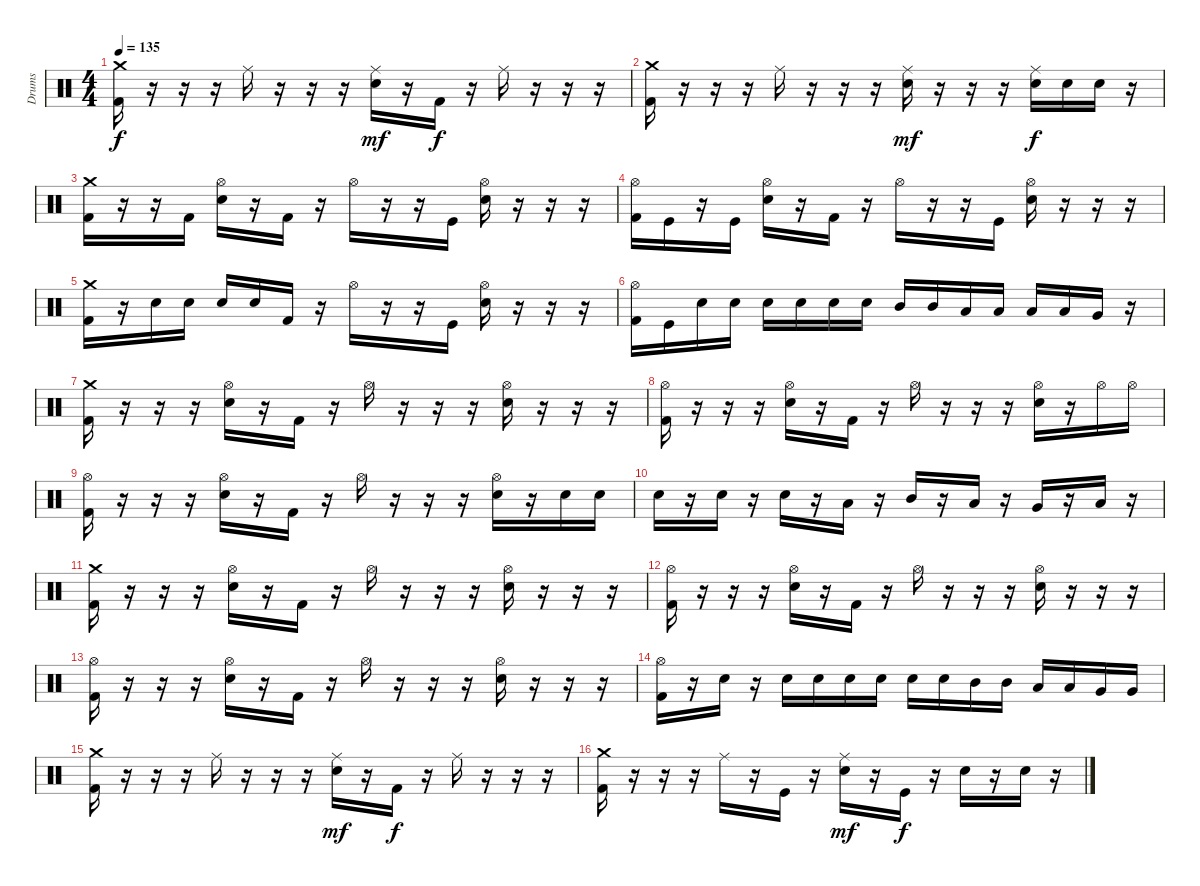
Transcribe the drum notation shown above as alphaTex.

\track ("Drums" "Drums") {instrument percussion}
\staff {score}
\articulation defaults
\ts (4 4)
\tempo 135
\clef neutral
\ks c
("Crash medium (hit)" "Kick (hit) 2").16{dy f} r.16 r.16 r.16 "Ride (middle)".16 r.16 r.16 r.16 ("Ride (middle)" "Electric Snare (hit)").16{dy mf} r.16 "Kick (hit) 2".16{dy f} r.16 "Ride (middle)".16 r.16 r.16 r.16 |
("Crash medium (hit)" "Kick (hit) 2").16 r.16 r.16 r.16 "Ride (middle)".16 r.16 r.16 r.16 ("Ride (middle)" "Electric Snare (hit)").16{dy mf} r.16 r.16 r.16 ("Ride (middle)" "Electric Snare (hit)").16{dy f} "Electric Snare (hit)".16 "Electric Snare (hit)".16 r.16 |
("Crash medium (hit)" "Kick (hit) 2").16 r.16 r.16 "Kick (hit) 2".16 ("Hi-Hat (open)" "Electric Snare (hit)").16 r.16 "Kick (hit) 2".16 r.16 "Hi-Hat (open)".16 r.16 r.16 "Kick (hit)".16 ("Hi-Hat (open)" "Electric Snare (hit)").16 r.16 r.16 r.16 |
("Hi-Hat (open)" "Kick (hit) 2").16 "Kick (hit)".16 r.16 "Kick (hit)".16 ("Hi-Hat (open)" "Electric Snare (hit)").16 r.16 "Kick (hit) 2".16 r.16 "Hi-Hat (open)".16 r.16 r.16 "Kick (hit)".16 ("Hi-Hat (open)" "Electric Snare (hit)").16 r.16 r.16 r.16 |
("Crash medium (hit)" "Kick (hit) 2").16 r.16 "Electric Snare (hit)".16 "Electric Snare (hit)".16 "Electric Snare (hit)".16 "Electric Snare (hit)".16 "Kick (hit) 2".16 r.16 "Hi-Hat (open)".16 r.16 r.16 "Kick (hit)".16 ("Hi-Hat (open)" "Electric Snare (hit)").16 r.16 r.16 r.16 |
("Hi-Hat (open)" "Kick (hit) 2").16 "Kick (hit)".16 "Electric Snare (hit)".16 "Electric Snare (hit)".16 "Electric Snare (hit)".16 "Electric Snare (hit)".16 "Electric Snare (hit)".16 "Electric Snare (hit)".16 "Mid Tom (hit)".16 "Mid Tom (hit)".16 "Low Tom (hit)".16 "Low Tom (hit)".16 "Low Tom (hit)".16 "Low Tom (hit)".16 "Very Low Tom (hit)".16 r.16 |
("Crash medium (hit)" "Kick (hit) 2").16 r.16 r.16 r.16 ("Hi-Hat (open)" "Electric Snare (hit)").16 r.16 "Kick (hit) 2".16 r.16 "Hi-Hat (open)".16 r.16 r.16 r.16 ("Hi-Hat (open)" "Electric Snare (hit)").16 r.16 r.16 r.16 |
("Hi-Hat (open)" "Kick (hit) 2").16 r.16 r.16 r.16 ("Hi-Hat (open)" "Electric Snare (hit)").16 r.16 "Kick (hit) 2".16 r.16 "Hi-Hat (open)".16 r.16 r.16 r.16 ("Hi-Hat (open)" "Electric Snare (hit)").16 r.16 "Hi-Hat (open)".16 "Hi-Hat (open)".16 |
("Hi-Hat (open)" "Kick (hit) 2").16 r.16 r.16 r.16 ("Hi-Hat (open)" "Electric Snare (hit)").16 r.16 "Kick (hit) 2".16 r.16 "Hi-Hat (open)".16 r.16 r.16 r.16 ("Hi-Hat (open)" "Electric Snare (hit)").16 r.16 "Electric Snare (hit)".16 "Electric Snare (hit)".16 |
"Electric Snare (hit)".16 r.16 "Electric Snare (hit)".16 r.16 "Electric Snare (hit)".16 r.16 "Low Tom (hit)".16 r.16 "Mid Tom (hit)".16 r.16 "Low Tom (hit)".16 r.16 "Very Low Tom (hit)".16 r.16 "Low Floor Tom (hit)".16 r.16 |
("Crash medium (hit)" "Kick (hit) 2").16 r.16 r.16 r.16 ("Hi-Hat (open)" "Electric Snare (hit)").16 r.16 "Kick (hit) 2".16 r.16 "Hi-Hat (open)".16 r.16 r.16 r.16 ("Hi-Hat (open)" "Electric Snare (hit)").16 r.16 r.16 r.16 |
("Hi-Hat (open)" "Kick (hit) 2").16 r.16 r.16 r.16 ("Hi-Hat (open)" "Electric Snare (hit)").16 r.16 "Kick (hit) 2".16 r.16 "Hi-Hat (open)".16 r.16 r.16 r.16 ("Hi-Hat (open)" "Electric Snare (hit)").16 r.16 r.16 r.16 |
("Hi-Hat (open)" "Kick (hit) 2").16 r.16 r.16 r.16 ("Hi-Hat (open)" "Electric Snare (hit)").16 r.16 "Kick (hit) 2".16 r.16 "Hi-Hat (open)".16 r.16 r.16 r.16 ("Hi-Hat (open)" "Electric Snare (hit)").16 r.16 r.16 r.16 |
("Hi-Hat (open)" "Kick (hit) 2").16 r.16 "Electric Snare (hit)".16 r.16 "Electric Snare (hit)".16 "Electric Snare (hit)".16 "Electric Snare (hit)".16 "Electric Snare (hit)".16 "Electric Snare (hit)".16 "Electric Snare (hit)".16 "Mid Tom (hit)".16 "Mid Tom (hit)".16 "Low Tom (hit)".16 "Low Tom (hit)".16 "Very Low Tom (hit)".16 "Very Low Tom (hit)".16 |
("Crash medium (hit)" "Kick (hit) 2").16 r.16 r.16 r.16 "Ride (middle)".16 r.16 r.16 r.16 ("Ride (middle)" "Electric Snare (hit)").16{dy mf} r.16 "Kick (hit) 2".16{dy f} r.16 "Ride (middle)".16 r.16 r.16 r.16 |
("Crash medium (hit)" "Kick (hit) 2").16 r.16 r.16 r.16 "Ride (middle)".16 r.16 "Kick (hit)".16 r.16 ("Ride (middle)" "Electric Snare (hit)").16{dy mf} r.16 "Kick (hit)".16{dy f} r.16 "Electric Snare (hit)".16 r.16 "Electric Snare (hit)".16 r.16
